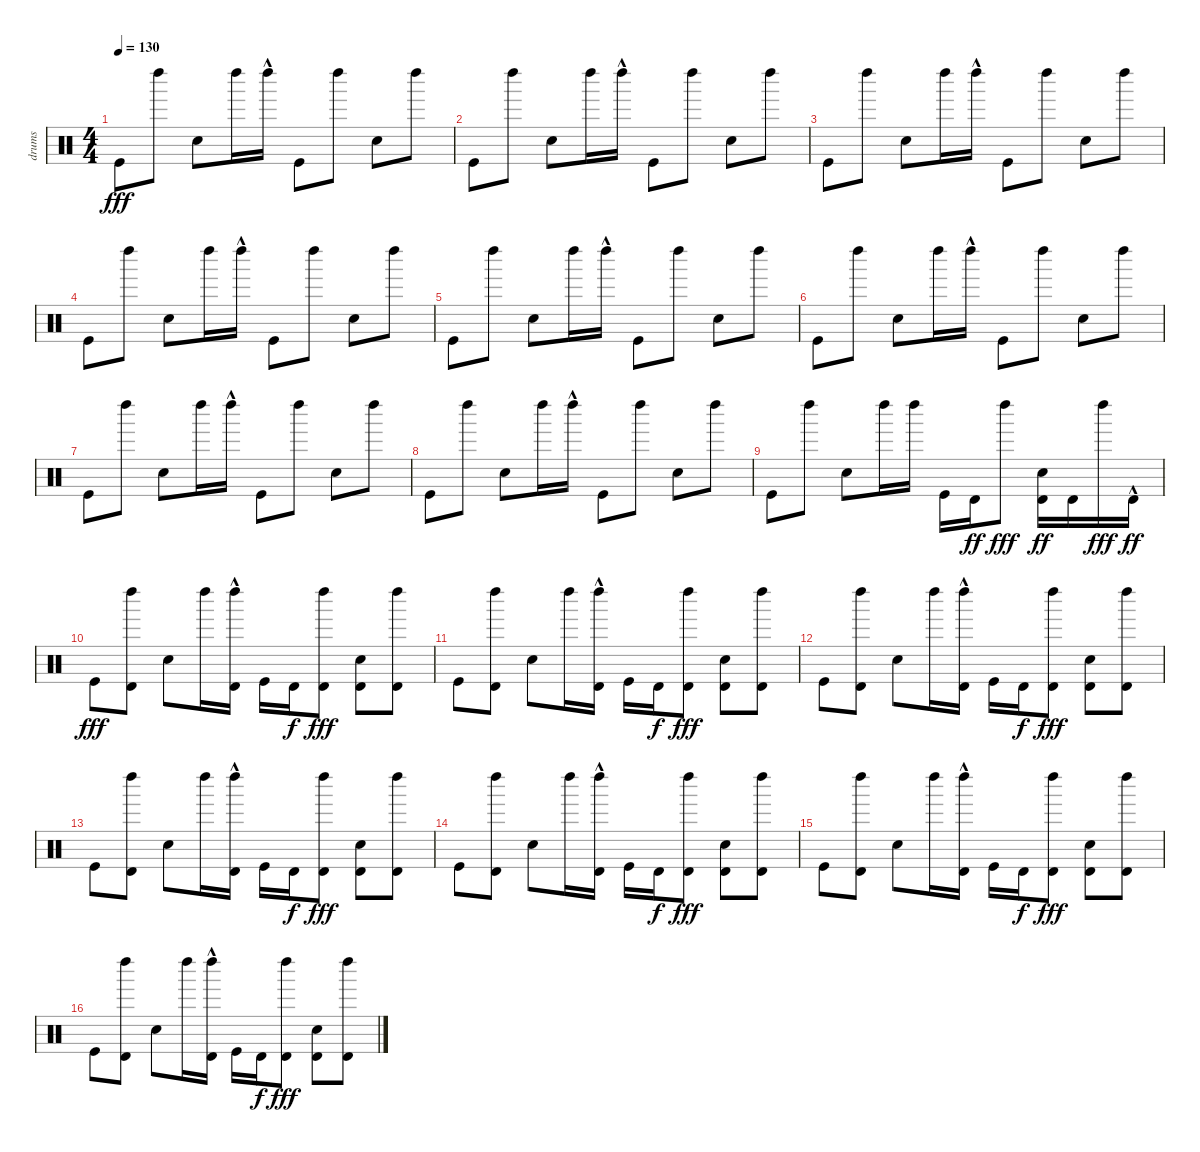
\track ("drums" "drums") {instrument percussion}
\staff {score}
\articulation defaults
\ts (4 4)
\tempo 130
\clef neutral
\ks c "Kick (hit)".8{dy fff} "Left Maraca (hit)".8 "Snare (hit) 2".8 "Left Maraca (hit)".16 "Left Maraca (hit)"{hac}.16 "Kick (hit)".8 "Left Maraca (hit)".8 "Snare (hit) 2".8 "Left Maraca (hit)".8
|
"Kick (hit)".8 "Left Maraca (hit)".8 "Snare (hit) 2".8 "Left Maraca (hit)".16 "Left Maraca (hit)"{hac}.16 "Kick (hit)".8 "Left Maraca (hit)".8 "Snare (hit) 2".8 "Left Maraca (hit)".8 |
"Kick (hit)".8 "Left Maraca (hit)".8 "Snare (hit) 2".8 "Left Maraca (hit)".16 "Left Maraca (hit)"{hac}.16 "Kick (hit)".8 "Left Maraca (hit)".8 "Snare (hit) 2".8 "Left Maraca (hit)".8 |
"Kick (hit)".8 "Left Maraca (hit)".8 "Snare (hit) 2".8 "Left Maraca (hit)".16 "Left Maraca (hit)"{hac}.16 "Kick (hit)".8 "Left Maraca (hit)".8 "Snare (hit) 2".8 "Left Maraca (hit)".8 |
"Kick (hit)".8 "Left Maraca (hit)".8 "Snare (hit) 2".8 "Left Maraca (hit)".16 "Left Maraca (hit)"{hac}.16 "Kick (hit)".8 "Left Maraca (hit)".8 "Snare (hit) 2".8 "Left Maraca (hit)".8 |
"Kick (hit)".8 "Left Maraca (hit)".8 "Snare (hit) 2".8 "Left Maraca (hit)".16 "Left Maraca (hit)"{hac}.16 "Kick (hit)".8 "Left Maraca (hit)".8 "Snare (hit) 2".8 "Left Maraca (hit)".8 |
"Kick (hit)".8 "Left Maraca (hit)".8 "Snare (hit) 2".8 "Left Maraca (hit)".16 "Left Maraca (hit)"{hac}.16 "Kick (hit)".8 "Left Maraca (hit)".8 "Snare (hit) 2".8 "Left Maraca (hit)".8 |
"Kick (hit)".8 "Left Maraca (hit)".8 "Snare (hit) 2".8 "Left Maraca (hit)".16 "Left Maraca (hit)"{hac}.16 "Kick (hit)".8 "Left Maraca (hit)".8 "Snare (hit) 2".8 "Left Maraca (hit)".8 |
"Kick (hit)".8 "Left Maraca (hit)".8 "Snare (hit) 2".8 "Left Maraca (hit)".16 "Left Maraca (hit)".16 "Kick (hit)".16 "Timbale high (hit)".16{dy ff} "Left Maraca (hit)".8{dy fff} ("Snare (hit) 2" "Timbale high (hit)").16{dy ff} "Timbale high (hit)".16 "Left Maraca (hit)".16{dy fff} "Timbale high (hit)"{hac}.16{dy ff} |
"Kick (hit)".8{dy fff} ("Left Maraca (hit)" "Timbale high (hit)").8 "Snare (hit) 2".8 "Left Maraca (hit)".16 ("Left Maraca (hit)"{hac} "Timbale high (hit)").16 "Kick (hit)".16 "Timbale high (hit)".16{dy f} ("Left Maraca (hit)" "Timbale high (hit)").8{dy fff} ("Snare (hit) 2" "Timbale high (hit)").8 ("Left Maraca (hit)" "Timbale high (hit)").8 |
"Kick (hit)".8 ("Left Maraca (hit)" "Timbale high (hit)").8 "Snare (hit) 2".8 "Left Maraca (hit)".16 ("Left Maraca (hit)"{hac} "Timbale high (hit)").16 "Kick (hit)".16 "Timbale high (hit)".16{dy f} ("Left Maraca (hit)" "Timbale high (hit)").8{dy fff} ("Snare (hit) 2" "Timbale high (hit)").8 ("Left Maraca (hit)" "Timbale high (hit)").8 |
"Kick (hit)".8 ("Left Maraca (hit)" "Timbale high (hit)").8 "Snare (hit) 2".8 "Left Maraca (hit)".16 ("Left Maraca (hit)"{hac} "Timbale high (hit)").16 "Kick (hit)".16 "Timbale high (hit)".16{dy f} ("Left Maraca (hit)" "Timbale high (hit)").8{dy fff} ("Snare (hit) 2" "Timbale high (hit)").8 ("Left Maraca (hit)" "Timbale high (hit)").8 |
"Kick (hit)".8 ("Left Maraca (hit)" "Timbale high (hit)").8 "Snare (hit) 2".8 "Left Maraca (hit)".16 ("Left Maraca (hit)"{hac} "Timbale high (hit)").16 "Kick (hit)".16 "Timbale high (hit)".16{dy f} ("Left Maraca (hit)" "Timbale high (hit)").8{dy fff} ("Snare (hit) 2" "Timbale high (hit)").8 ("Left Maraca (hit)" "Timbale high (hit)").8 |
"Kick (hit)".8 ("Left Maraca (hit)" "Timbale high (hit)").8 "Snare (hit) 2".8 "Left Maraca (hit)".16 ("Left Maraca (hit)"{hac} "Timbale high (hit)").16 "Kick (hit)".16 "Timbale high (hit)".16{dy f} ("Left Maraca (hit)" "Timbale high (hit)").8{dy fff} ("Snare (hit) 2" "Timbale high (hit)").8 ("Left Maraca (hit)" "Timbale high (hit)").8 |
"Kick (hit)".8 ("Left Maraca (hit)" "Timbale high (hit)").8 "Snare (hit) 2".8 "Left Maraca (hit)".16 ("Left Maraca (hit)"{hac} "Timbale high (hit)").16 "Kick (hit)".16 "Timbale high (hit)".16{dy f} ("Left Maraca (hit)" "Timbale high (hit)").8{dy fff} ("Snare (hit) 2" "Timbale high (hit)").8 ("Left Maraca (hit)" "Timbale high (hit)").8 |
"Kick (hit)".8 ("Left Maraca (hit)" "Timbale high (hit)").8 "Snare (hit) 2".8 "Left Maraca (hit)".16 ("Left Maraca (hit)"{hac} "Timbale high (hit)").16 "Kick (hit)".16 "Timbale high (hit)".16{dy f} ("Left Maraca (hit)" "Timbale high (hit)").8{dy fff} ("Snare (hit) 2" "Timbale high (hit)").8 ("Left Maraca (hit)" "Timbale high (hit)").8
